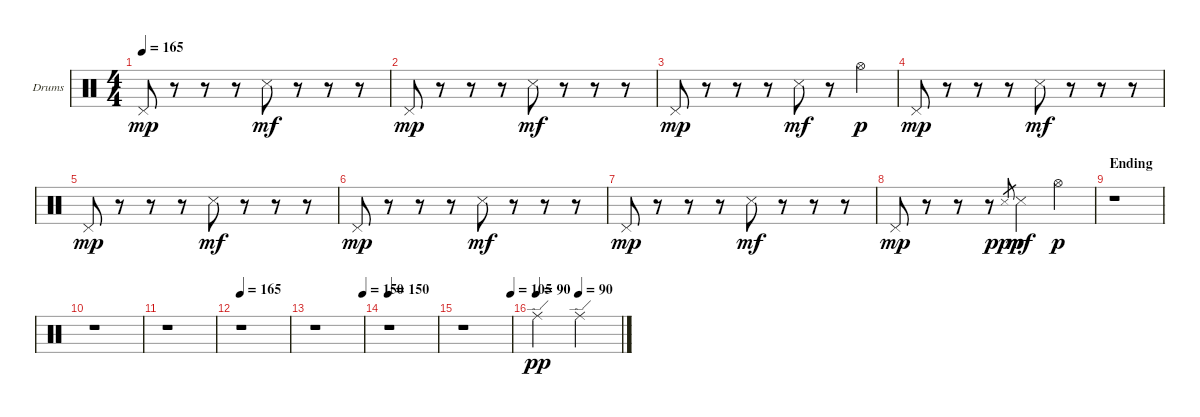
\bracketExtendMode groupsimilarinstruments
\firstSystemTrackNameOrientation horizontal
\otherSystemsTrackNameOrientation horizontal
\track ("Drumkit" "Drums") {instrument percussion}
\staff {score}
\articulation defaults
\ts (4 4)
\tempo 165
\clef neutral
\ks c "Pedal Hi-Hat (hit)".8{dy mp}
r.8 r.8 r.8 "Snare (side stick) 3".8{dy mf} r.8 r.8 r.8 |
"Pedal Hi-Hat (hit)".8{dy mp} r.8 r.8 r.8 "Snare (side stick) 3".8{dy mf} r.8 r.8 r.8 |
"Pedal Hi-Hat (hit)".8{dy mp} r.8 r.8 r.8 "Snare (side stick) 3".8{dy mf} r.8 "Hi-Hat (open)".4{dy p} |
"Pedal Hi-Hat (hit)".8{dy mp} r.8 r.8 r.8 "Snare (side stick) 3".8{dy mf} r.8 r.8 r.8 |
"Pedal Hi-Hat (hit)".8{dy mp} r.8 r.8 r.8 "Snare (side stick) 3".8{dy mf} r.8 r.8 r.8 |
"Pedal Hi-Hat (hit)".8{dy mp} r.8 r.8 r.8 "Snare (side stick) 3".8{dy mf} r.8 r.8 r.8 |
"Pedal Hi-Hat (hit)".8{dy mp} r.8 r.8 r.8 "Snare (side stick) 3".8{dy mf} r.8 r.8 r.8 |
"Pedal Hi-Hat (hit)".8{dy mp} r.8 r.8 r.8 "Snare (side stick) 3".8{gr dy ppp} "Snare (side stick) 3".4{dy mf} "Hi-Hat (open)".4{dy p} |
\section ("" "Ending")
r.1 |
r.1 |
r.1 |
\tempo 165
r.1 |
\tempo (150 1)
r.1 |
\tempo 150
r.1 |
\tempo (105 1)
r.1 |
\tempo 105
\tempo 90
\tempo (90 0.5)
"Ride (edge)".2{dy pp} "Ride (edge)".2
